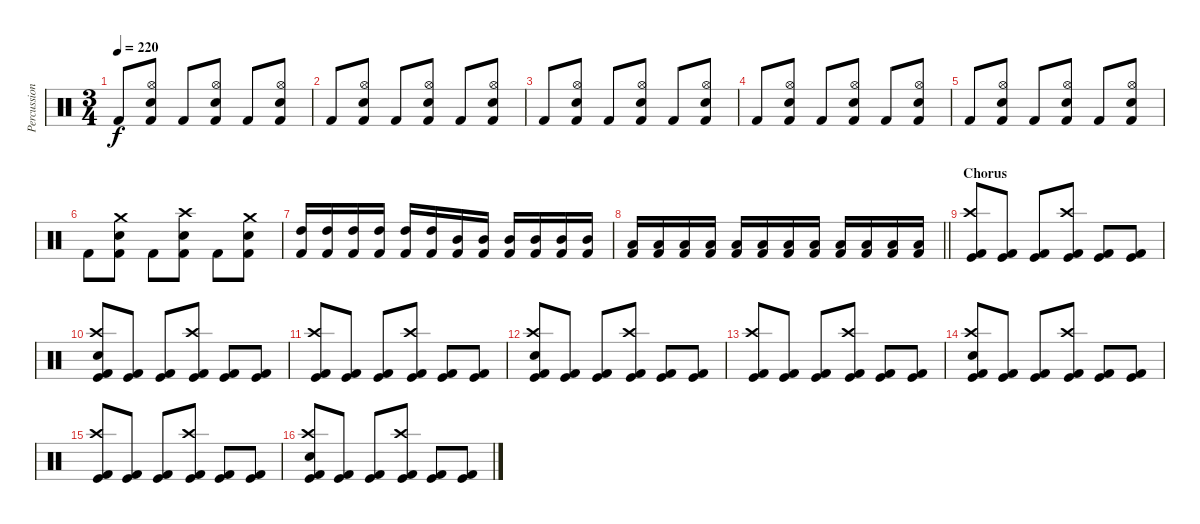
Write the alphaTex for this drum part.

\track ("Percussion" "Percussion") {instrument percussion}
\staff {score}
\articulation defaults
\ts (3 4)
\tempo 220
\clef neutral
\ks c "Kick (hit) 2".8{dy f}
("Hi-Hat (open)" "Electric Snare (hit)" "Kick (hit) 2").8 "Kick (hit) 2".8 ("Hi-Hat (open)" "Electric Snare (hit)" "Kick (hit) 2").8 "Kick (hit) 2".8 ("Hi-Hat (open)" "Electric Snare (hit)" "Kick (hit) 2").8 |
"Kick (hit) 2".8 ("Hi-Hat (open)" "Electric Snare (hit)" "Kick (hit) 2").8 "Kick (hit) 2".8 ("Hi-Hat (open)" "Electric Snare (hit)" "Kick (hit) 2").8 "Kick (hit) 2".8 ("Hi-Hat (open)" "Electric Snare (hit)" "Kick (hit) 2").8 |
"Kick (hit) 2".8 ("Hi-Hat (open)" "Electric Snare (hit)" "Kick (hit) 2").8 "Kick (hit) 2".8 ("Hi-Hat (open)" "Electric Snare (hit)" "Kick (hit) 2").8 "Kick (hit) 2".8 ("Hi-Hat (open)" "Electric Snare (hit)" "Kick (hit) 2").8 |
"Kick (hit) 2".8 ("Hi-Hat (open)" "Electric Snare (hit)" "Kick (hit) 2").8 "Kick (hit) 2".8 ("Hi-Hat (open)" "Electric Snare (hit)" "Kick (hit) 2").8 "Kick (hit) 2".8 ("Hi-Hat (open)" "Electric Snare (hit)" "Kick (hit) 2").8 |
"Kick (hit) 2".8 ("Hi-Hat (open)" "Electric Snare (hit)" "Kick (hit) 2").8 "Kick (hit) 2".8 ("Hi-Hat (open)" "Electric Snare (hit)" "Kick (hit) 2").8 "Kick (hit) 2".8 ("Hi-Hat (open)" "Electric Snare (hit)" "Kick (hit) 2").8 |
"Kick (hit) 2".8 ("Crash medium (hit)" "Electric Snare (hit)" "Kick (hit) 2").8 "Kick (hit) 2".8 ("Crash high (hit)" "Electric Snare (hit)" "Kick (hit) 2").8 "Kick (hit) 2".8 ("Crash medium (hit)" "Electric Snare (hit)" "Kick (hit) 2").8 |
("High Tom (hit)" "Kick (hit) 2").16 ("High Tom (hit)" "Kick (hit) 2").16 ("High Tom (hit)" "Kick (hit) 2").16 ("High Tom (hit)" "Kick (hit) 2").16 ("High Tom (hit)" "Kick (hit) 2").16 ("High Tom (hit)" "Kick (hit) 2").16 ("Mid Tom (hit)" "Kick (hit) 2").16 ("Mid Tom (hit)" "Kick (hit) 2").16 ("Mid Tom (hit)" "Kick (hit) 2").16 ("Mid Tom (hit)" "Kick (hit) 2").16 ("Mid Tom (hit)" "Kick (hit) 2").16 ("Mid Tom (hit)" "Kick (hit) 2").16 |
\barLineRight lightlight
("Low Tom (hit)" "Kick (hit) 2").16 ("Low Tom (hit)" "Kick (hit) 2").16 ("Low Tom (hit)" "Kick (hit) 2").16 ("Low Tom (hit)" "Kick (hit) 2").16 ("Low Tom (hit)" "Kick (hit) 2").16 ("Low Tom (hit)" "Kick (hit) 2").16 ("Low Floor Tom (hit)" "Kick (hit) 2").16 ("Low Floor Tom (hit)" "Kick (hit) 2").16 ("Low Floor Tom (hit)" "Kick (hit) 2").16 ("Low Floor Tom (hit)" "Kick (hit) 2").16 ("Low Floor Tom (hit)" "Kick (hit) 2").16 ("Low Floor Tom (hit)" "Kick (hit) 2").16 |
\section ("" "Chorus")
("Crash high (hit)" "Kick (hit)" "Kick (hit) 2").8 ("Kick (hit)" "Kick (hit) 2").8 ("Kick (hit)" "Kick (hit) 2").8 ("Crash high (hit)" "Kick (hit)" "Kick (hit) 2").8 ("Kick (hit)" "Kick (hit) 2").8 ("Kick (hit)" "Kick (hit) 2").8 |
("Crash high (hit)" "Electric Snare (hit)" "Kick (hit)" "Kick (hit) 2").8 ("Kick (hit)" "Kick (hit) 2").8 ("Kick (hit)" "Kick (hit) 2").8 ("Crash high (hit)" "Kick (hit)" "Kick (hit) 2").8 ("Kick (hit)" "Kick (hit) 2").8 ("Kick (hit)" "Kick (hit) 2").8 |
("Crash high (hit)" "Kick (hit)" "Kick (hit) 2").8 ("Kick (hit)" "Kick (hit) 2").8 ("Kick (hit)" "Kick (hit) 2").8 ("Crash high (hit)" "Kick (hit)" "Kick (hit) 2").8 ("Kick (hit)" "Kick (hit) 2").8 ("Kick (hit)" "Kick (hit) 2").8 |
("Crash high (hit)" "Electric Snare (hit)" "Kick (hit)" "Kick (hit) 2").8 ("Kick (hit)" "Kick (hit) 2").8 ("Kick (hit)" "Kick (hit) 2").8 ("Crash high (hit)" "Kick (hit)" "Kick (hit) 2").8 ("Kick (hit)" "Kick (hit) 2").8 ("Kick (hit)" "Kick (hit) 2").8 |
("Crash high (hit)" "Kick (hit)" "Kick (hit) 2").8 ("Kick (hit)" "Kick (hit) 2").8 ("Kick (hit)" "Kick (hit) 2").8 ("Crash high (hit)" "Kick (hit)" "Kick (hit) 2").8 ("Kick (hit)" "Kick (hit) 2").8 ("Kick (hit)" "Kick (hit) 2").8 |
("Crash high (hit)" "Electric Snare (hit)" "Kick (hit)" "Kick (hit) 2").8 ("Kick (hit)" "Kick (hit) 2").8 ("Kick (hit)" "Kick (hit) 2").8 ("Crash high (hit)" "Kick (hit)" "Kick (hit) 2").8 ("Kick (hit)" "Kick (hit) 2").8 ("Kick (hit)" "Kick (hit) 2").8 |
("Crash high (hit)" "Kick (hit)" "Kick (hit) 2").8 ("Kick (hit)" "Kick (hit) 2").8 ("Kick (hit)" "Kick (hit) 2").8 ("Crash high (hit)" "Kick (hit)" "Kick (hit) 2").8 ("Kick (hit)" "Kick (hit) 2").8 ("Kick (hit)" "Kick (hit) 2").8 |
("Crash high (hit)" "Electric Snare (hit)" "Kick (hit)" "Kick (hit) 2").8 ("Kick (hit)" "Kick (hit) 2").8 ("Kick (hit)" "Kick (hit) 2").8 ("Crash high (hit)" "Kick (hit)" "Kick (hit) 2").8 ("Kick (hit)" "Kick (hit) 2").8 ("Kick (hit)" "Kick (hit) 2").8
